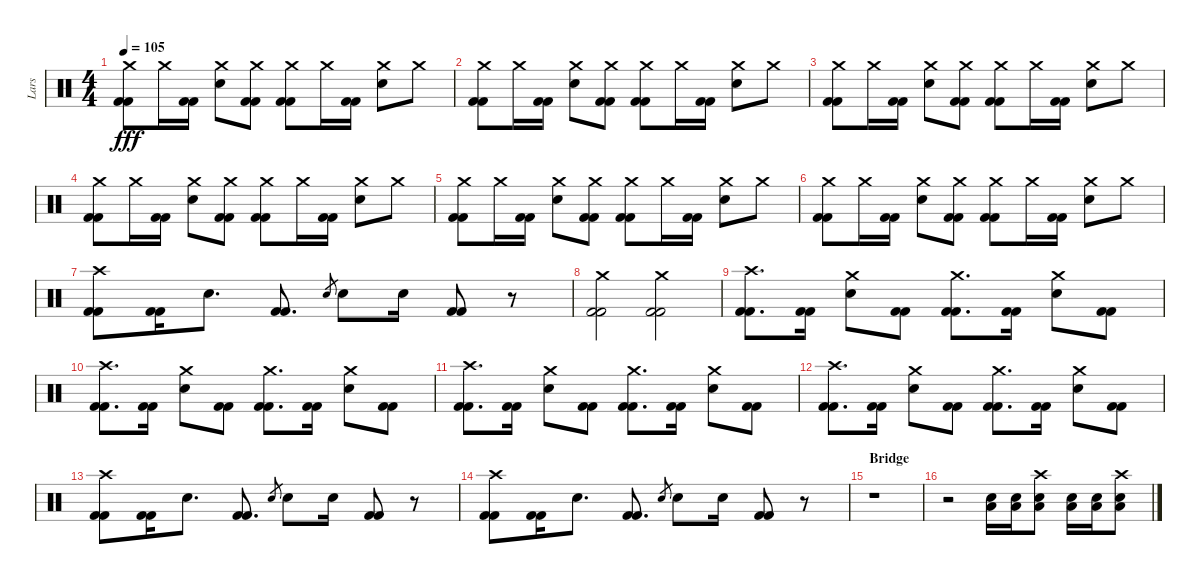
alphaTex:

\track ("Lars" "Lars") {instrument percussion}
\staff {score}
\articulation defaults
\ts (4 4)
\tempo 105
\clef neutral
\ks c
("Crash medium (hit)" "Kick (hit) 2" "Kick (hit) 2").8{dy fff} "Crash medium (hit)".16 ("Kick (hit) 2" "Kick (hit) 2").16 ("Crash medium (hit)" "Electric Snare (hit)").8 ("Crash medium (hit)" "Kick (hit) 2" "Kick (hit) 2").8 ("Crash medium (hit)" "Kick (hit) 2" "Kick (hit) 2").8 "Crash medium (hit)".16 ("Kick (hit) 2" "Kick (hit) 2").16 ("Crash medium (hit)" "Electric Snare (hit)").8 "Crash medium (hit)".8 |
("Crash medium (hit)" "Kick (hit) 2" "Kick (hit) 2").8 "Crash medium (hit)".16 ("Kick (hit) 2" "Kick (hit) 2").16 ("Crash medium (hit)" "Electric Snare (hit)").8 ("Crash medium (hit)" "Kick (hit) 2" "Kick (hit) 2").8 ("Crash medium (hit)" "Kick (hit) 2" "Kick (hit) 2").8 "Crash medium (hit)".16 ("Kick (hit) 2" "Kick (hit) 2").16 ("Crash medium (hit)" "Electric Snare (hit)").8 "Crash medium (hit)".8 |
("Crash medium (hit)" "Kick (hit) 2" "Kick (hit) 2").8 "Crash medium (hit)".16 ("Kick (hit) 2" "Kick (hit) 2").16 ("Crash medium (hit)" "Electric Snare (hit)").8 ("Crash medium (hit)" "Kick (hit) 2" "Kick (hit) 2").8 ("Crash medium (hit)" "Kick (hit) 2" "Kick (hit) 2").8 "Crash medium (hit)".16 ("Kick (hit) 2" "Kick (hit) 2").16 ("Crash medium (hit)" "Electric Snare (hit)").8 "Crash medium (hit)".8 |
("Crash medium (hit)" "Kick (hit) 2" "Kick (hit) 2").8 "Crash medium (hit)".16 ("Kick (hit) 2" "Kick (hit) 2").16 ("Crash medium (hit)" "Electric Snare (hit)").8 ("Crash medium (hit)" "Kick (hit) 2" "Kick (hit) 2").8 ("Crash medium (hit)" "Kick (hit) 2" "Kick (hit) 2").8 "Crash medium (hit)".16 ("Kick (hit) 2" "Kick (hit) 2").16 ("Crash medium (hit)" "Electric Snare (hit)").8 "Crash medium (hit)".8 |
("Crash medium (hit)" "Kick (hit) 2" "Kick (hit) 2").8 "Crash medium (hit)".16 ("Kick (hit) 2" "Kick (hit) 2").16 ("Crash medium (hit)" "Electric Snare (hit)").8 ("Crash medium (hit)" "Kick (hit) 2" "Kick (hit) 2").8 ("Crash medium (hit)" "Kick (hit) 2" "Kick (hit) 2").8 "Crash medium (hit)".16 ("Kick (hit) 2" "Kick (hit) 2").16 ("Crash medium (hit)" "Electric Snare (hit)").8 "Crash medium (hit)".8 |
("Crash medium (hit)" "Kick (hit) 2" "Kick (hit) 2").8 "Crash medium (hit)".16 ("Kick (hit) 2" "Kick (hit) 2").16 ("Crash medium (hit)" "Electric Snare (hit)").8 ("Crash medium (hit)" "Kick (hit) 2" "Kick (hit) 2").8 ("Crash medium (hit)" "Kick (hit) 2" "Kick (hit) 2").8 "Crash medium (hit)".16 ("Kick (hit) 2" "Kick (hit) 2").16 ("Crash medium (hit)" "Electric Snare (hit)").8 "Crash medium (hit)".8 |
("Crash high (hit)" "Kick (hit) 2" "Kick (hit) 2").8 ("Kick (hit) 2" "Kick (hit) 2").16 "Electric Snare (hit)".8{d} ("Kick (hit) 2" "Kick (hit) 2").8{d} "Electric Snare (hit)".8{gr} "Electric Snare (hit)".8 "Electric Snare (hit)".16 ("Kick (hit) 2" "Kick (hit) 2").8 r.8 |
("Crash medium (hit)" "Kick (hit) 2" "Kick (hit) 2").2 ("Crash medium (hit)" "Kick (hit) 2" "Kick (hit) 2").2 |
("Crash high (hit)" "Kick (hit) 2" "Kick (hit) 2").8{d} ("Kick (hit) 2" "Kick (hit) 2").16 ("Crash medium (hit)" "Electric Snare (hit)").8 ("Kick (hit) 2" "Kick (hit) 2").8 ("Crash medium (hit)" "Kick (hit) 2" "Kick (hit) 2").8{d} ("Kick (hit) 2" "Kick (hit) 2").16 ("Crash medium (hit)" "Electric Snare (hit)").8 ("Kick (hit) 2" "Kick (hit) 2").8 |
("Crash high (hit)" "Kick (hit) 2" "Kick (hit) 2").8{d} ("Kick (hit) 2" "Kick (hit) 2").16 ("Crash medium (hit)" "Electric Snare (hit)").8 ("Kick (hit) 2" "Kick (hit) 2").8 ("Crash medium (hit)" "Kick (hit) 2" "Kick (hit) 2").8{d} ("Kick (hit) 2" "Kick (hit) 2").16 ("Crash medium (hit)" "Electric Snare (hit)").8 ("Kick (hit) 2" "Kick (hit) 2").8 |
("Crash high (hit)" "Kick (hit) 2" "Kick (hit) 2").8{d} ("Kick (hit) 2" "Kick (hit) 2").16 ("Crash medium (hit)" "Electric Snare (hit)").8 ("Kick (hit) 2" "Kick (hit) 2").8 ("Crash medium (hit)" "Kick (hit) 2" "Kick (hit) 2").8{d} ("Kick (hit) 2" "Kick (hit) 2").16 ("Crash medium (hit)" "Electric Snare (hit)").8 ("Kick (hit) 2" "Kick (hit) 2").8 |
("Crash high (hit)" "Kick (hit) 2" "Kick (hit) 2").8{d} ("Kick (hit) 2" "Kick (hit) 2").16 ("Crash medium (hit)" "Electric Snare (hit)").8 ("Kick (hit) 2" "Kick (hit) 2").8 ("Crash medium (hit)" "Kick (hit) 2" "Kick (hit) 2").8{d} ("Kick (hit) 2" "Kick (hit) 2").16 ("Crash medium (hit)" "Electric Snare (hit)").8 ("Kick (hit) 2" "Kick (hit) 2").8 |
("Crash high (hit)" "Kick (hit) 2" "Kick (hit) 2").8 ("Kick (hit) 2" "Kick (hit) 2").16 "Electric Snare (hit)".8{d} ("Kick (hit) 2" "Kick (hit) 2").8{d} "Electric Snare (hit)".8{gr} "Electric Snare (hit)".8 "Electric Snare (hit)".16 ("Kick (hit) 2" "Kick (hit) 2").8 r.8 |
("Crash high (hit)" "Kick (hit) 2" "Kick (hit) 2").8 ("Kick (hit) 2" "Kick (hit) 2").16 "Electric Snare (hit)".8{d} ("Kick (hit) 2" "Kick (hit) 2").8{d} "Electric Snare (hit)".8{gr} "Electric Snare (hit)".8 "Electric Snare (hit)".16 ("Kick (hit) 2" "Kick (hit) 2").8 r.8 |
\section ("" "Bridge")
r.1 |
r.2 ("Low Floor Tom (hit)" "Electric Snare (hit)").16 ("Low Floor Tom (hit)" "Electric Snare (hit)").16 ("Crash high (hit)" "Low Floor Tom (hit)" "Electric Snare (hit)").8 ("Low Floor Tom (hit)" "Electric Snare (hit)").16 ("Low Floor Tom (hit)" "Electric Snare (hit)").16 ("Crash high (hit)" "Low Floor Tom (hit)" "Electric Snare (hit)").8
